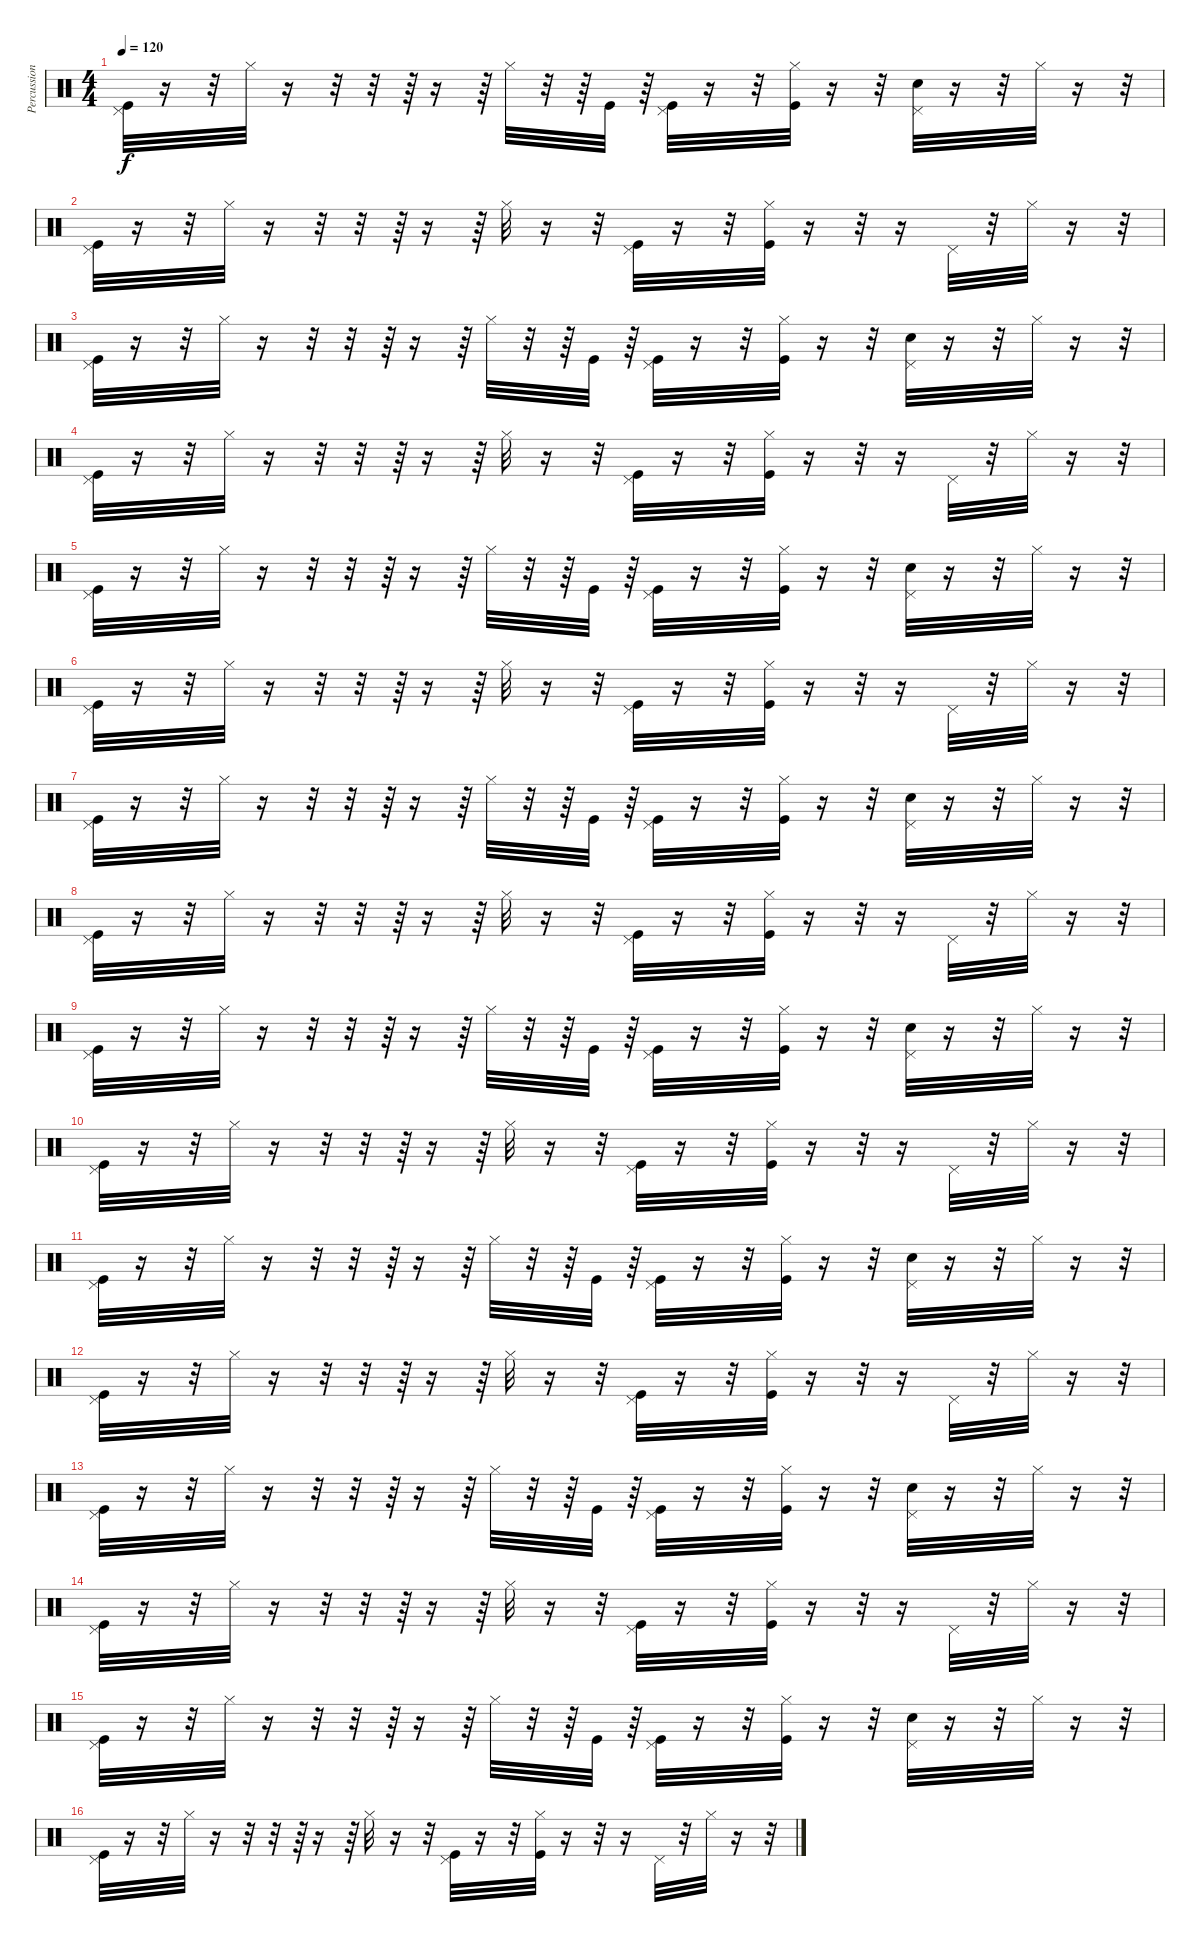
\track ("Percussion" "Percussion") {instrument percussion}
\staff {score}
\articulation defaults
\ts (4 4)
\tempo 120
\clef neutral
\ks c
("Pedal Hi-Hat (hit)" "Kick (hit)").32{dy f} r.16 r.32 "Hi-Hat (closed)".32 r.16 r.32 r.32 r.64 r.16 r.64 "Hi-Hat (closed)".32 r.32 r.64 "Kick (hit)".32 r.64 ("Kick (hit)" "Pedal Hi-Hat (hit)").32 r.16 r.32 ("Kick (hit)" "Hi-Hat (closed)").32 r.16 r.32 ("Snare (hit) 2" "Pedal Hi-Hat (hit)").32 r.16 r.32 "Hi-Hat (closed)".32 r.16 r.32 |
("Pedal Hi-Hat (hit)" "Kick (hit)").32 r.16 r.32 "Hi-Hat (closed)".32 r.16 r.32 r.32 r.64 r.16 r.64 "Hi-Hat (closed)".32 r.16 r.32 ("Kick (hit)" "Pedal Hi-Hat (hit)").32 r.16 r.32 ("Kick (hit)" "Hi-Hat (closed)").32 r.16 r.32 r.16 "Pedal Hi-Hat (hit)".32 r.32 "Hi-Hat (closed)".32 r.16 r.32 |
("Pedal Hi-Hat (hit)" "Kick (hit)").32 r.16 r.32 "Hi-Hat (closed)".32 r.16 r.32 r.32 r.64 r.16 r.64 "Hi-Hat (closed)".32 r.32 r.64 "Kick (hit)".32 r.64 ("Kick (hit)" "Pedal Hi-Hat (hit)").32 r.16 r.32 ("Kick (hit)" "Hi-Hat (closed)").32 r.16 r.32 ("Snare (hit) 2" "Pedal Hi-Hat (hit)").32 r.16 r.32 "Hi-Hat (closed)".32 r.16 r.32 |
("Pedal Hi-Hat (hit)" "Kick (hit)").32 r.16 r.32 "Hi-Hat (closed)".32 r.16 r.32 r.32 r.64 r.16 r.64 "Hi-Hat (closed)".32 r.16 r.32 ("Kick (hit)" "Pedal Hi-Hat (hit)").32 r.16 r.32 ("Kick (hit)" "Hi-Hat (closed)").32 r.16 r.32 r.16 "Pedal Hi-Hat (hit)".32 r.32 "Hi-Hat (closed)".32 r.16 r.32 |
("Pedal Hi-Hat (hit)" "Kick (hit)").32 r.16 r.32 "Hi-Hat (closed)".32 r.16 r.32 r.32 r.64 r.16 r.64 "Hi-Hat (closed)".32 r.32 r.64 "Kick (hit)".32 r.64 ("Kick (hit)" "Pedal Hi-Hat (hit)").32 r.16 r.32 ("Kick (hit)" "Hi-Hat (closed)").32 r.16 r.32 ("Snare (hit) 2" "Pedal Hi-Hat (hit)").32 r.16 r.32 "Hi-Hat (closed)".32 r.16 r.32 |
("Pedal Hi-Hat (hit)" "Kick (hit)").32 r.16 r.32 "Hi-Hat (closed)".32 r.16 r.32 r.32 r.64 r.16 r.64 "Hi-Hat (closed)".32 r.16 r.32 ("Kick (hit)" "Pedal Hi-Hat (hit)").32 r.16 r.32 ("Kick (hit)" "Hi-Hat (closed)").32 r.16 r.32 r.16 "Pedal Hi-Hat (hit)".32 r.32 "Hi-Hat (closed)".32 r.16 r.32 |
("Pedal Hi-Hat (hit)" "Kick (hit)").32 r.16 r.32 "Hi-Hat (closed)".32 r.16 r.32 r.32 r.64 r.16 r.64 "Hi-Hat (closed)".32 r.32 r.64 "Kick (hit)".32 r.64 ("Kick (hit)" "Pedal Hi-Hat (hit)").32 r.16 r.32 ("Kick (hit)" "Hi-Hat (closed)").32 r.16 r.32 ("Snare (hit) 2" "Pedal Hi-Hat (hit)").32 r.16 r.32 "Hi-Hat (closed)".32 r.16 r.32 |
("Pedal Hi-Hat (hit)" "Kick (hit)").32 r.16 r.32 "Hi-Hat (closed)".32 r.16 r.32 r.32 r.64 r.16 r.64 "Hi-Hat (closed)".32 r.16 r.32 ("Kick (hit)" "Pedal Hi-Hat (hit)").32 r.16 r.32 ("Kick (hit)" "Hi-Hat (closed)").32 r.16 r.32 r.16 "Pedal Hi-Hat (hit)".32 r.32 "Hi-Hat (closed)".32 r.16 r.32 |
("Pedal Hi-Hat (hit)" "Kick (hit)").32 r.16 r.32 "Hi-Hat (closed)".32 r.16 r.32 r.32 r.64 r.16 r.64 "Hi-Hat (closed)".32 r.32 r.64 "Kick (hit)".32 r.64 ("Kick (hit)" "Pedal Hi-Hat (hit)").32 r.16 r.32 ("Kick (hit)" "Hi-Hat (closed)").32 r.16 r.32 ("Snare (hit) 2" "Pedal Hi-Hat (hit)").32 r.16 r.32 "Hi-Hat (closed)".32 r.16 r.32 |
("Pedal Hi-Hat (hit)" "Kick (hit)").32 r.16 r.32 "Hi-Hat (closed)".32 r.16 r.32 r.32 r.64 r.16 r.64 "Hi-Hat (closed)".32 r.16 r.32 ("Kick (hit)" "Pedal Hi-Hat (hit)").32 r.16 r.32 ("Kick (hit)" "Hi-Hat (closed)").32 r.16 r.32 r.16 "Pedal Hi-Hat (hit)".32 r.32 "Hi-Hat (closed)".32 r.16 r.32 |
("Pedal Hi-Hat (hit)" "Kick (hit)").32 r.16 r.32 "Hi-Hat (closed)".32 r.16 r.32 r.32 r.64 r.16 r.64 "Hi-Hat (closed)".32 r.32 r.64 "Kick (hit)".32 r.64 ("Kick (hit)" "Pedal Hi-Hat (hit)").32 r.16 r.32 ("Kick (hit)" "Hi-Hat (closed)").32 r.16 r.32 ("Snare (hit) 2" "Pedal Hi-Hat (hit)").32 r.16 r.32 "Hi-Hat (closed)".32 r.16 r.32 |
("Pedal Hi-Hat (hit)" "Kick (hit)").32 r.16 r.32 "Hi-Hat (closed)".32 r.16 r.32 r.32 r.64 r.16 r.64 "Hi-Hat (closed)".32 r.16 r.32 ("Kick (hit)" "Pedal Hi-Hat (hit)").32 r.16 r.32 ("Kick (hit)" "Hi-Hat (closed)").32 r.16 r.32 r.16 "Pedal Hi-Hat (hit)".32 r.32 "Hi-Hat (closed)".32 r.16 r.32 |
("Pedal Hi-Hat (hit)" "Kick (hit)").32 r.16 r.32 "Hi-Hat (closed)".32 r.16 r.32 r.32 r.64 r.16 r.64 "Hi-Hat (closed)".32 r.32 r.64 "Kick (hit)".32 r.64 ("Kick (hit)" "Pedal Hi-Hat (hit)").32 r.16 r.32 ("Kick (hit)" "Hi-Hat (closed)").32 r.16 r.32 ("Snare (hit) 2" "Pedal Hi-Hat (hit)").32 r.16 r.32 "Hi-Hat (closed)".32 r.16 r.32 |
("Pedal Hi-Hat (hit)" "Kick (hit)").32 r.16 r.32 "Hi-Hat (closed)".32 r.16 r.32 r.32 r.64 r.16 r.64 "Hi-Hat (closed)".32 r.16 r.32 ("Kick (hit)" "Pedal Hi-Hat (hit)").32 r.16 r.32 ("Kick (hit)" "Hi-Hat (closed)").32 r.16 r.32 r.16 "Pedal Hi-Hat (hit)".32 r.32 "Hi-Hat (closed)".32 r.16 r.32 |
("Pedal Hi-Hat (hit)" "Kick (hit)").32 r.16 r.32 "Hi-Hat (closed)".32 r.16 r.32 r.32 r.64 r.16 r.64 "Hi-Hat (closed)".32 r.32 r.64 "Kick (hit)".32 r.64 ("Kick (hit)" "Pedal Hi-Hat (hit)").32 r.16 r.32 ("Kick (hit)" "Hi-Hat (closed)").32 r.16 r.32 ("Snare (hit) 2" "Pedal Hi-Hat (hit)").32 r.16 r.32 "Hi-Hat (closed)".32 r.16 r.32 |
("Pedal Hi-Hat (hit)" "Kick (hit)").32 r.16 r.32 "Hi-Hat (closed)".32 r.16 r.32 r.32 r.64 r.16 r.64 "Hi-Hat (closed)".32 r.16 r.32 ("Kick (hit)" "Pedal Hi-Hat (hit)").32 r.16 r.32 ("Kick (hit)" "Hi-Hat (closed)").32 r.16 r.32 r.16 "Pedal Hi-Hat (hit)".32 r.32 "Hi-Hat (closed)".32 r.16 r.32
